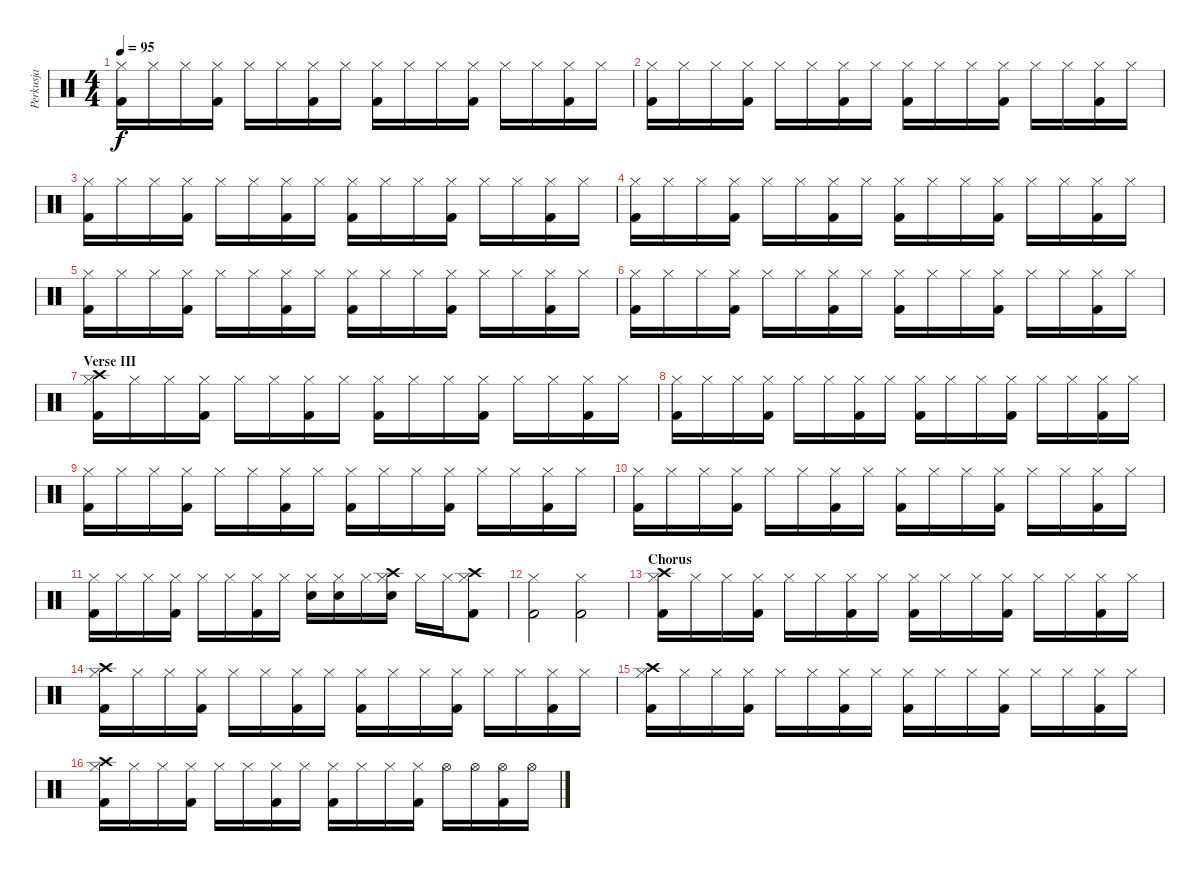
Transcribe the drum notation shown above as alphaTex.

\track ("Perkusja" "Perkusja") {instrument percussion}
\staff {score}
\articulation defaults
\ts (4 4)
\tempo 95
\clef neutral
\ks c
("Hi-Hat (closed)" "Kick (hit) 2").16{dy f} "Hi-Hat (closed)".16 "Hi-Hat (closed)".16 ("Hi-Hat (closed)" "Kick (hit) 2").16 "Hi-Hat (closed)".16 "Hi-Hat (closed)".16 ("Hi-Hat (closed)" "Kick (hit) 2").16 "Hi-Hat (closed)".16 ("Hi-Hat (closed)" "Kick (hit) 2").16 "Hi-Hat (closed)".16 "Hi-Hat (closed)".16 ("Hi-Hat (closed)" "Kick (hit) 2").16 "Hi-Hat (closed)".16 "Hi-Hat (closed)".16 ("Hi-Hat (closed)" "Kick (hit) 2").16 "Hi-Hat (closed)".16 |
("Hi-Hat (closed)" "Kick (hit) 2").16 "Hi-Hat (closed)".16 "Hi-Hat (closed)".16 ("Hi-Hat (closed)" "Kick (hit) 2").16 "Hi-Hat (closed)".16 "Hi-Hat (closed)".16 ("Hi-Hat (closed)" "Kick (hit) 2").16 "Hi-Hat (closed)".16 ("Hi-Hat (closed)" "Kick (hit) 2").16 "Hi-Hat (closed)".16 "Hi-Hat (closed)".16 ("Hi-Hat (closed)" "Kick (hit) 2").16 "Hi-Hat (closed)".16 "Hi-Hat (closed)".16 ("Hi-Hat (closed)" "Kick (hit) 2").16 "Hi-Hat (closed)".16 |
("Hi-Hat (closed)" "Kick (hit) 2").16 "Hi-Hat (closed)".16 "Hi-Hat (closed)".16 ("Hi-Hat (closed)" "Kick (hit) 2").16 "Hi-Hat (closed)".16 "Hi-Hat (closed)".16 ("Hi-Hat (closed)" "Kick (hit) 2").16 "Hi-Hat (closed)".16 ("Hi-Hat (closed)" "Kick (hit) 2").16 "Hi-Hat (closed)".16 "Hi-Hat (closed)".16 ("Hi-Hat (closed)" "Kick (hit) 2").16 "Hi-Hat (closed)".16 "Hi-Hat (closed)".16 ("Hi-Hat (closed)" "Kick (hit) 2").16 "Hi-Hat (closed)".16 |
("Hi-Hat (closed)" "Kick (hit) 2").16 "Hi-Hat (closed)".16 "Hi-Hat (closed)".16 ("Hi-Hat (closed)" "Kick (hit) 2").16 "Hi-Hat (closed)".16 "Hi-Hat (closed)".16 ("Hi-Hat (closed)" "Kick (hit) 2").16 "Hi-Hat (closed)".16 ("Hi-Hat (closed)" "Kick (hit) 2").16 "Hi-Hat (closed)".16 "Hi-Hat (closed)".16 ("Hi-Hat (closed)" "Kick (hit) 2").16 "Hi-Hat (closed)".16 "Hi-Hat (closed)".16 ("Hi-Hat (closed)" "Kick (hit) 2").16 "Hi-Hat (closed)".16 |
("Hi-Hat (closed)" "Kick (hit) 2").16 "Hi-Hat (closed)".16 "Hi-Hat (closed)".16 ("Hi-Hat (closed)" "Kick (hit) 2").16 "Hi-Hat (closed)".16 "Hi-Hat (closed)".16 ("Hi-Hat (closed)" "Kick (hit) 2").16 "Hi-Hat (closed)".16 ("Hi-Hat (closed)" "Kick (hit) 2").16 "Hi-Hat (closed)".16 "Hi-Hat (closed)".16 ("Hi-Hat (closed)" "Kick (hit) 2").16 "Hi-Hat (closed)".16 "Hi-Hat (closed)".16 ("Hi-Hat (closed)" "Kick (hit) 2").16 "Hi-Hat (closed)".16 |
("Hi-Hat (closed)" "Kick (hit) 2").16 "Hi-Hat (closed)".16 "Hi-Hat (closed)".16 ("Hi-Hat (closed)" "Kick (hit) 2").16 "Hi-Hat (closed)".16 "Hi-Hat (closed)".16 ("Hi-Hat (closed)" "Kick (hit) 2").16 "Hi-Hat (closed)".16 ("Hi-Hat (closed)" "Kick (hit) 2").16 "Hi-Hat (closed)".16 "Hi-Hat (closed)".16 ("Hi-Hat (closed)" "Kick (hit) 2").16 "Hi-Hat (closed)".16 "Hi-Hat (closed)".16 ("Hi-Hat (closed)" "Kick (hit) 2").16 "Hi-Hat (closed)".16 |
\section ("" "Verse III")
("Hi-Hat (closed)" "Kick (hit) 2" "Crash high (hit)").16 "Hi-Hat (closed)".16 "Hi-Hat (closed)".16 ("Hi-Hat (closed)" "Kick (hit) 2").16 "Hi-Hat (closed)".16 "Hi-Hat (closed)".16 ("Hi-Hat (closed)" "Kick (hit) 2").16 "Hi-Hat (closed)".16 ("Hi-Hat (closed)" "Kick (hit) 2").16 "Hi-Hat (closed)".16 "Hi-Hat (closed)".16 ("Hi-Hat (closed)" "Kick (hit) 2").16 "Hi-Hat (closed)".16 "Hi-Hat (closed)".16 ("Hi-Hat (closed)" "Kick (hit) 2").16 "Hi-Hat (closed)".16 |
("Hi-Hat (closed)" "Kick (hit) 2").16 "Hi-Hat (closed)".16 "Hi-Hat (closed)".16 ("Hi-Hat (closed)" "Kick (hit) 2").16 "Hi-Hat (closed)".16 "Hi-Hat (closed)".16 ("Hi-Hat (closed)" "Kick (hit) 2").16 "Hi-Hat (closed)".16 ("Hi-Hat (closed)" "Kick (hit) 2").16 "Hi-Hat (closed)".16 "Hi-Hat (closed)".16 ("Hi-Hat (closed)" "Kick (hit) 2").16 "Hi-Hat (closed)".16 "Hi-Hat (closed)".16 ("Hi-Hat (closed)" "Kick (hit) 2").16 "Hi-Hat (closed)".16 |
("Hi-Hat (closed)" "Kick (hit) 2").16 "Hi-Hat (closed)".16 "Hi-Hat (closed)".16 ("Hi-Hat (closed)" "Kick (hit) 2").16 "Hi-Hat (closed)".16 "Hi-Hat (closed)".16 ("Hi-Hat (closed)" "Kick (hit) 2").16 "Hi-Hat (closed)".16 ("Hi-Hat (closed)" "Kick (hit) 2").16 "Hi-Hat (closed)".16 "Hi-Hat (closed)".16 ("Hi-Hat (closed)" "Kick (hit) 2").16 "Hi-Hat (closed)".16 "Hi-Hat (closed)".16 ("Hi-Hat (closed)" "Kick (hit) 2").16 "Hi-Hat (closed)".16 |
("Hi-Hat (closed)" "Kick (hit) 2").16 "Hi-Hat (closed)".16 "Hi-Hat (closed)".16 ("Hi-Hat (closed)" "Kick (hit) 2").16 "Hi-Hat (closed)".16 "Hi-Hat (closed)".16 ("Hi-Hat (closed)" "Kick (hit) 2").16 "Hi-Hat (closed)".16 ("Hi-Hat (closed)" "Kick (hit) 2").16 "Hi-Hat (closed)".16 "Hi-Hat (closed)".16 ("Hi-Hat (closed)" "Kick (hit) 2").16 "Hi-Hat (closed)".16 "Hi-Hat (closed)".16 ("Hi-Hat (closed)" "Kick (hit) 2").16 "Hi-Hat (closed)".16 |
("Hi-Hat (closed)" "Kick (hit) 2").16 "Hi-Hat (closed)".16 "Hi-Hat (closed)".16 ("Hi-Hat (closed)" "Kick (hit) 2").16 "Hi-Hat (closed)".16 "Hi-Hat (closed)".16 ("Hi-Hat (closed)" "Kick (hit) 2").16 "Hi-Hat (closed)".16 ("Hi-Hat (closed)" "Snare (hit) 2").16 ("Hi-Hat (closed)" "Snare (hit) 2").16 "Hi-Hat (closed)".16 ("Hi-Hat (closed)" "Snare (hit) 2" "Crash high (hit)").16 "Hi-Hat (closed)".16 "Hi-Hat (closed)".16 ("Hi-Hat (closed)" "Kick (hit) 2" "Crash high (hit)").8 |
("Hi-Hat (closed)" "Kick (hit) 2").2 ("Hi-Hat (closed)" "Kick (hit) 2").2 |
\section ("" "Chorus")
("Hi-Hat (closed)" "Kick (hit) 2" "Crash high (hit)").16 "Hi-Hat (closed)".16 "Hi-Hat (closed)".16 ("Hi-Hat (closed)" "Kick (hit) 2").16 "Hi-Hat (closed)".16 "Hi-Hat (closed)".16 ("Hi-Hat (closed)" "Kick (hit) 2").16 "Hi-Hat (closed)".16 ("Hi-Hat (closed)" "Kick (hit) 2").16 "Hi-Hat (closed)".16 "Hi-Hat (closed)".16 ("Hi-Hat (closed)" "Kick (hit) 2").16 "Hi-Hat (closed)".16 "Hi-Hat (closed)".16 ("Hi-Hat (closed)" "Kick (hit) 2").16 "Hi-Hat (closed)".16 |
("Hi-Hat (closed)" "Kick (hit) 2" "Crash high (hit)").16 "Hi-Hat (closed)".16 "Hi-Hat (closed)".16 ("Hi-Hat (closed)" "Kick (hit) 2").16 "Hi-Hat (closed)".16 "Hi-Hat (closed)".16 ("Hi-Hat (closed)" "Kick (hit) 2").16 "Hi-Hat (closed)".16 ("Hi-Hat (closed)" "Kick (hit) 2").16 "Hi-Hat (closed)".16 "Hi-Hat (closed)".16 ("Hi-Hat (closed)" "Kick (hit) 2").16 "Hi-Hat (closed)".16 "Hi-Hat (closed)".16 ("Hi-Hat (closed)" "Kick (hit) 2").16 "Hi-Hat (closed)".16 |
("Hi-Hat (closed)" "Kick (hit) 2" "Crash high (hit)").16 "Hi-Hat (closed)".16 "Hi-Hat (closed)".16 ("Hi-Hat (closed)" "Kick (hit) 2").16 "Hi-Hat (closed)".16 "Hi-Hat (closed)".16 ("Hi-Hat (closed)" "Kick (hit) 2").16 "Hi-Hat (closed)".16 ("Hi-Hat (closed)" "Kick (hit) 2").16 "Hi-Hat (closed)".16 "Hi-Hat (closed)".16 ("Hi-Hat (closed)" "Kick (hit) 2").16 "Hi-Hat (closed)".16 "Hi-Hat (closed)".16 ("Hi-Hat (closed)" "Kick (hit) 2").16 "Hi-Hat (closed)".16 |
("Hi-Hat (closed)" "Kick (hit) 2" "Crash high (hit)").16 "Hi-Hat (closed)".16 "Hi-Hat (closed)".16 ("Hi-Hat (closed)" "Kick (hit) 2").16 "Hi-Hat (closed)".16 "Hi-Hat (closed)".16 ("Hi-Hat (closed)" "Kick (hit) 2").16 "Hi-Hat (closed)".16 ("Hi-Hat (closed)" "Kick (hit) 2").16 "Hi-Hat (closed)".16 "Hi-Hat (closed)".16 ("Hi-Hat (closed)" "Kick (hit) 2").16 "Hi-Hat (open)".16 "Hi-Hat (open)".16 ("Hi-Hat (open)" "Kick (hit) 2").16 "Hi-Hat (open)".16
